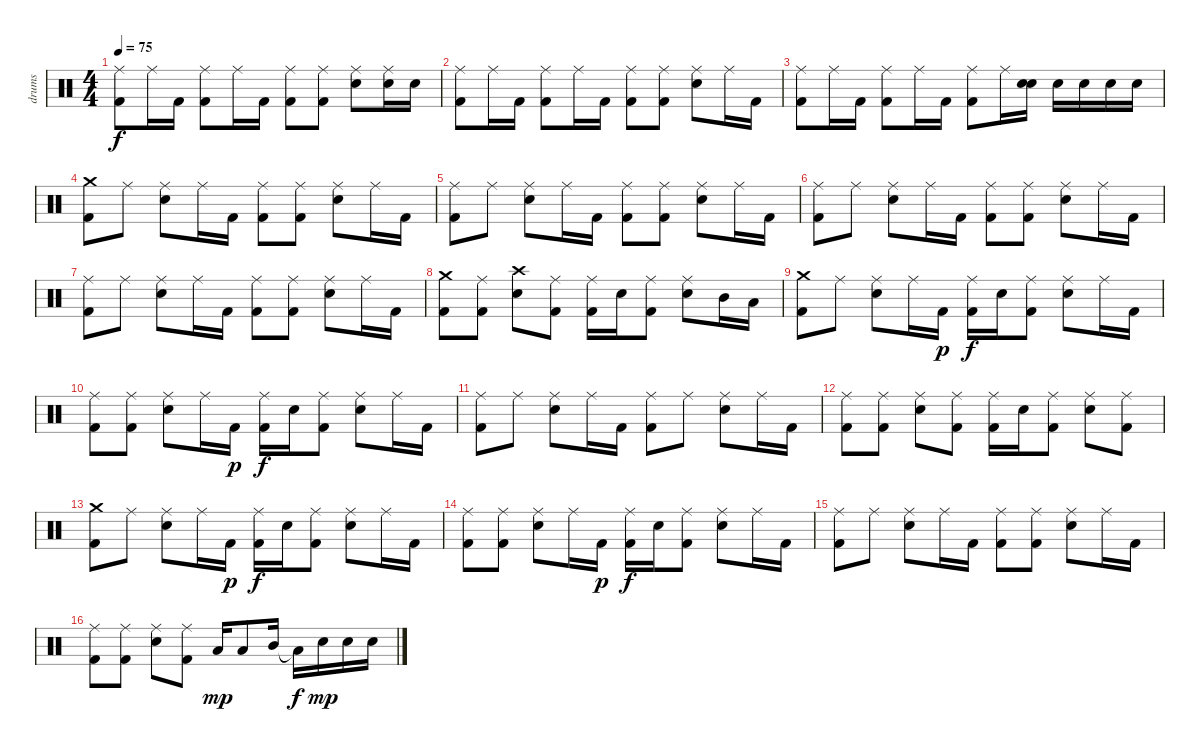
\track ("drums" "drums") {instrument percussion}
\staff {score}
\articulation defaults
\ts (4 4)
\tempo 75
\clef neutral
\ks c
("Ride (middle)" "Kick (hit) 2").8{dy f} "Ride (middle)".16 "Kick (hit) 2".16 ("Ride (middle)" "Kick (hit) 2").8 "Ride (middle)".16 "Kick (hit) 2".16 ("Ride (middle)" "Kick (hit) 2").8 ("Ride (middle)" "Kick (hit) 2").8 ("Ride (middle)" "Snare (hit) 2").8 ("Ride (middle)" "Snare (hit) 2").16 "Snare (hit) 2".16 |
("Ride (middle)" "Kick (hit) 2").8 "Ride (middle)".16 "Kick (hit) 2".16 ("Ride (middle)" "Kick (hit) 2").8 "Ride (middle)".16 "Kick (hit) 2".16 ("Ride (middle)" "Kick (hit) 2").8 ("Ride (middle)" "Kick (hit) 2").8 ("Ride (middle)" "Snare (hit) 2").8 "Ride (middle)".16 "Kick (hit) 2".16 |
("Ride (middle)" "Kick (hit) 2").8 "Ride (middle)".16 "Kick (hit) 2".16 ("Ride (middle)" "Kick (hit) 2").8 "Ride (middle)".16 "Kick (hit) 2".16 ("Ride (middle)" "Kick (hit) 2").8 "Ride (middle)".16 ("Snare (hit) 2" "Snare (hit) 2").16 "Snare (hit) 2".16 "Snare (hit) 2".16 "Snare (hit) 2".16 "Snare (hit) 2".16 |
("Crash medium (hit)" "Kick (hit) 2").8 "Ride (middle)".8 ("Ride (middle)" "Snare (hit) 2").8 "Ride (middle)".16 "Kick (hit) 2".16 ("Ride (middle)" "Kick (hit) 2").8 ("Ride (middle)" "Kick (hit) 2").8 ("Ride (middle)" "Snare (hit) 2").8 "Ride (middle)".16 "Kick (hit) 2".16 |
("Ride (middle)" "Kick (hit) 2").8 "Ride (middle)".8 ("Ride (middle)" "Snare (hit) 2").8 "Ride (middle)".16 "Kick (hit) 2".16 ("Ride (middle)" "Kick (hit) 2").8 ("Ride (middle)" "Kick (hit) 2").8 ("Ride (middle)" "Snare (hit) 2").8 "Ride (middle)".16 "Kick (hit) 2".16 |
("Ride (middle)" "Kick (hit) 2").8 "Ride (middle)".8 ("Ride (middle)" "Snare (hit) 2").8 "Ride (middle)".16 "Kick (hit) 2".16 ("Ride (middle)" "Kick (hit) 2").8 ("Ride (middle)" "Kick (hit) 2").8 ("Ride (middle)" "Snare (hit) 2").8 "Ride (middle)".16 "Kick (hit) 2".16 |
("Ride (middle)" "Kick (hit) 2").8 "Ride (middle)".8 ("Ride (middle)" "Snare (hit) 2").8 "Ride (middle)".16 "Kick (hit) 2".16 ("Ride (middle)" "Kick (hit) 2").8 ("Ride (middle)" "Kick (hit) 2").8 ("Ride (middle)" "Snare (hit) 2").8 "Ride (middle)".16 "Kick (hit) 2".16 |
("Crash medium (hit)" "Kick (hit) 2").8 ("Ride (middle)" "Kick (hit) 2").8 ("Crash high (hit)" "Snare (hit) 2").8 ("Ride (middle)" "Kick (hit) 2").8 ("Ride (middle)" "Kick (hit) 2").16 "Snare (hit) 2".16 ("Ride (middle)" "Kick (hit) 2").8 ("Ride (middle)" "Snare (hit) 2").8 "Mid Tom (hit)".16 "Low Tom (hit)".16 |
("Crash medium (hit)" "Kick (hit) 2").8 "Ride (middle)".8 ("Ride (middle)" "Snare (hit) 2").8 "Ride (middle)".16 "Kick (hit) 2".16{dy p} ("Ride (middle)" "Kick (hit) 2").16{dy f} "Snare (hit) 2".16 ("Ride (middle)" "Kick (hit) 2").8 ("Ride (middle)" "Snare (hit) 2").8 "Ride (middle)".16 "Kick (hit) 2".16 |
("Ride (middle)" "Kick (hit) 2").8 ("Ride (middle)" "Kick (hit) 2").8 ("Ride (middle)" "Snare (hit) 2").8 "Ride (middle)".16 "Kick (hit) 2".16{dy p} ("Ride (middle)" "Kick (hit) 2").16{dy f} "Snare (hit) 2".16 ("Ride (middle)" "Kick (hit) 2").8 ("Ride (middle)" "Snare (hit) 2").8 "Ride (middle)".16 "Kick (hit) 2".16 |
("Ride (middle)" "Kick (hit) 2").8 "Ride (middle)".8 ("Ride (middle)" "Snare (hit) 2").8 "Ride (middle)".16 "Kick (hit) 2".16 ("Ride (middle)" "Kick (hit) 2").8 "Ride (middle)".8 ("Ride (middle)" "Snare (hit) 2").8 "Ride (middle)".16 "Kick (hit) 2".16 |
("Ride (middle)" "Kick (hit) 2").8 ("Ride (middle)" "Kick (hit) 2").8 ("Ride (middle)" "Snare (hit) 2").8 ("Ride (middle)" "Kick (hit) 2").8 ("Ride (middle)" "Kick (hit) 2").16 "Snare (hit) 2".16 ("Ride (middle)" "Kick (hit) 2").8 ("Ride (middle)" "Snare (hit) 2").8 ("Ride (middle)" "Kick (hit) 2").8 |
("Crash medium (hit)" "Kick (hit) 2").8 "Ride (middle)".8 ("Ride (middle)" "Snare (hit) 2").8 "Ride (middle)".16 "Kick (hit) 2".16{dy p} ("Ride (middle)" "Kick (hit) 2").16{dy f} "Snare (hit) 2".16 ("Ride (middle)" "Kick (hit) 2").8 ("Ride (middle)" "Snare (hit) 2").8 "Ride (middle)".16 "Kick (hit) 2".16 |
("Ride (middle)" "Kick (hit) 2").8 ("Ride (middle)" "Kick (hit) 2").8 ("Ride (middle)" "Snare (hit) 2").8 "Ride (middle)".16 "Kick (hit) 2".16{dy p} ("Ride (middle)" "Kick (hit) 2").16{dy f} "Snare (hit) 2".16 ("Ride (middle)" "Kick (hit) 2").8 ("Ride (middle)" "Snare (hit) 2").8 "Ride (middle)".16 "Kick (hit) 2".16 |
("Ride (middle)" "Kick (hit) 2").8 "Ride (middle)".8 ("Ride (middle)" "Snare (hit) 2").8 "Ride (middle)".16 "Kick (hit) 2".16 ("Ride (middle)" "Kick (hit) 2").8 ("Ride (middle)" "Kick (hit) 2").8 ("Ride (middle)" "Snare (hit) 2").8 "Ride (middle)".16 "Kick (hit) 2".16 |
("Ride (middle)" "Kick (hit) 2").8 ("Ride (middle)" "Kick (hit) 2").8 ("Ride (middle)" "Snare (hit) 2").8 ("Ride (middle)" "Kick (hit) 2").8 "Low Tom (hit)".16{dy mp} "Low Tom (hit)".8 "Mid Tom (hit)".16 "Low Tom (hit)"{t}.16{dy f} "Snare (hit) 2".16{dy mp} "Snare (hit) 2".16 "Snare (hit) 2".16
